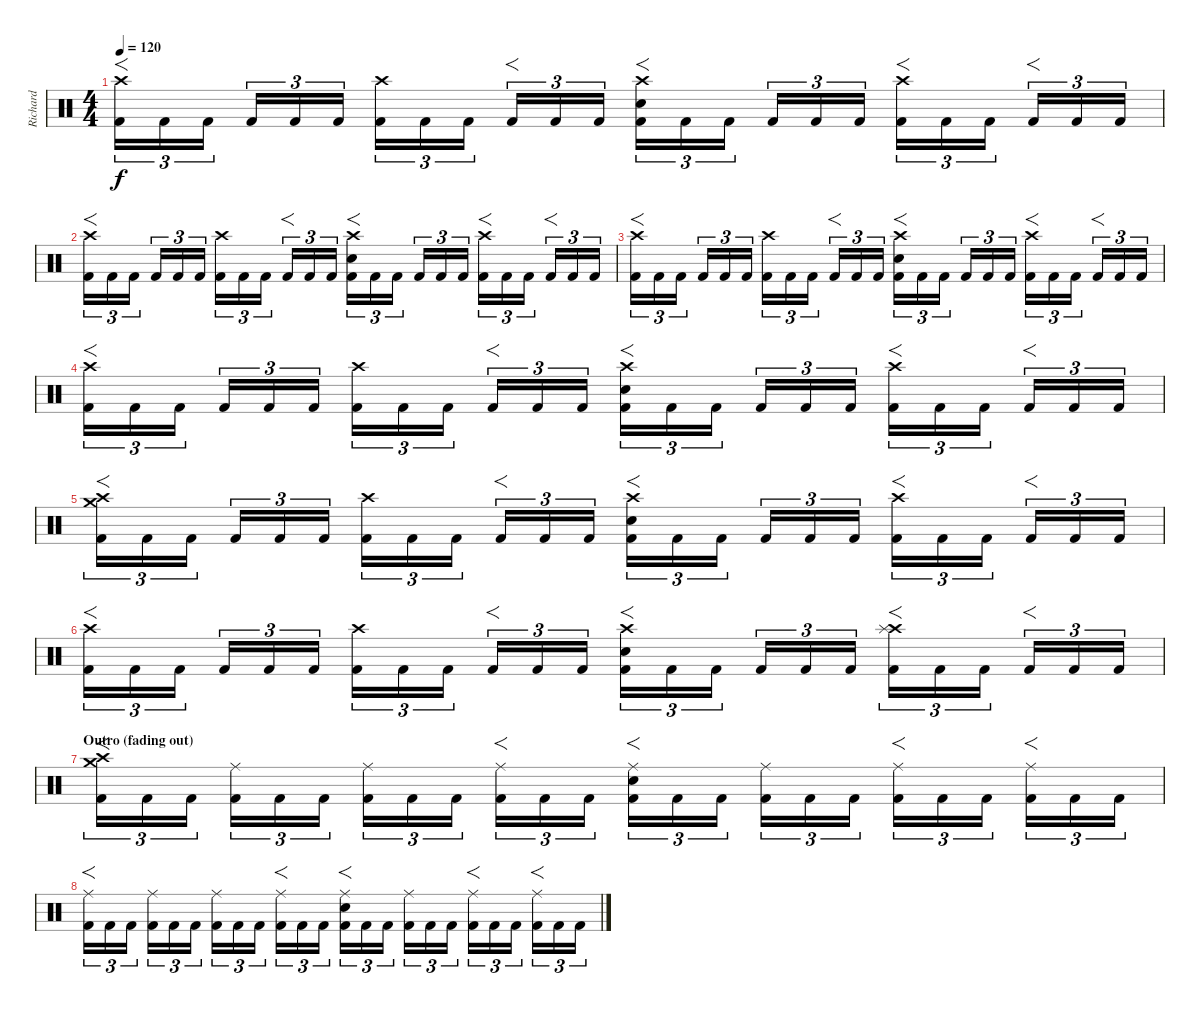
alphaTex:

\track ("Richard " "Richard ") {instrument percussion}
\staff {score}
\articulation defaults
\ts (4 4)
\tempo 120
\clef neutral
\ks c
("Crash high (hit)" "Kick (hit) 2").16{f tu (3 2) dy f} "Kick (hit) 2".16{tu (3 2)} "Kick (hit) 2".16{tu (3 2)} "Kick (hit) 2".16{tu (3 2)} "Kick (hit) 2".16{tu (3 2)} "Kick (hit) 2".16{tu (3 2)} ("Crash high (hit)" "Kick (hit) 2").16{tu (3 2)} "Kick (hit) 2".16{tu (3 2)} "Kick (hit) 2".16{tu (3 2)} "Kick (hit) 2".16{f tu (3 2)} "Kick (hit) 2".16{tu (3 2)} "Kick (hit) 2".16{tu (3 2)} ("Crash high (hit)" "Snare (hit) 2" "Kick (hit) 2").16{f tu (3 2)} "Kick (hit) 2".16{tu (3 2)} "Kick (hit) 2".16{tu (3 2)} "Kick (hit) 2".16{tu (3 2)} "Kick (hit) 2".16{tu (3 2)} "Kick (hit) 2".16{tu (3 2)} ("Crash high (hit)" "Kick (hit) 2").16{f tu (3 2)} "Kick (hit) 2".16{tu (3 2)} "Kick (hit) 2".16{tu (3 2)} "Kick (hit) 2".16{f tu (3 2)} "Kick (hit) 2".16{tu (3 2)} "Kick (hit) 2".16{tu (3 2)} |
("Crash high (hit)" "Kick (hit) 2").16{f tu (3 2)} "Kick (hit) 2".16{tu (3 2)} "Kick (hit) 2".16{tu (3 2)} "Kick (hit) 2".16{tu (3 2)} "Kick (hit) 2".16{tu (3 2)} "Kick (hit) 2".16{tu (3 2)} ("Crash high (hit)" "Kick (hit) 2").16{tu (3 2)} "Kick (hit) 2".16{tu (3 2)} "Kick (hit) 2".16{tu (3 2)} "Kick (hit) 2".16{f tu (3 2)} "Kick (hit) 2".16{tu (3 2)} "Kick (hit) 2".16{tu (3 2)} ("Crash high (hit)" "Snare (hit) 2" "Kick (hit) 2").16{f tu (3 2)} "Kick (hit) 2".16{tu (3 2)} "Kick (hit) 2".16{tu (3 2)} "Kick (hit) 2".16{tu (3 2)} "Kick (hit) 2".16{tu (3 2)} "Kick (hit) 2".16{tu (3 2)} ("Crash high (hit)" "Kick (hit) 2").16{f tu (3 2)} "Kick (hit) 2".16{tu (3 2)} "Kick (hit) 2".16{tu (3 2)} "Kick (hit) 2".16{f tu (3 2)} "Kick (hit) 2".16{tu (3 2)} "Kick (hit) 2".16{tu (3 2)} |
("Crash high (hit)" "Kick (hit) 2").16{f tu (3 2)} "Kick (hit) 2".16{tu (3 2)} "Kick (hit) 2".16{tu (3 2)} "Kick (hit) 2".16{tu (3 2)} "Kick (hit) 2".16{tu (3 2)} "Kick (hit) 2".16{tu (3 2)} ("Crash high (hit)" "Kick (hit) 2").16{tu (3 2)} "Kick (hit) 2".16{tu (3 2)} "Kick (hit) 2".16{tu (3 2)} "Kick (hit) 2".16{f tu (3 2)} "Kick (hit) 2".16{tu (3 2)} "Kick (hit) 2".16{tu (3 2)} ("Crash high (hit)" "Snare (hit) 2" "Kick (hit) 2").16{f tu (3 2)} "Kick (hit) 2".16{tu (3 2)} "Kick (hit) 2".16{tu (3 2)} "Kick (hit) 2".16{tu (3 2)} "Kick (hit) 2".16{tu (3 2)} "Kick (hit) 2".16{tu (3 2)} ("Crash high (hit)" "Kick (hit) 2").16{f tu (3 2)} "Kick (hit) 2".16{tu (3 2)} "Kick (hit) 2".16{tu (3 2)} "Kick (hit) 2".16{f tu (3 2)} "Kick (hit) 2".16{tu (3 2)} "Kick (hit) 2".16{tu (3 2)} |
("Crash high (hit)" "Kick (hit) 2").16{f tu (3 2)} "Kick (hit) 2".16{tu (3 2)} "Kick (hit) 2".16{tu (3 2)} "Kick (hit) 2".16{tu (3 2)} "Kick (hit) 2".16{tu (3 2)} "Kick (hit) 2".16{tu (3 2)} ("Crash high (hit)" "Kick (hit) 2").16{tu (3 2)} "Kick (hit) 2".16{tu (3 2)} "Kick (hit) 2".16{tu (3 2)} "Kick (hit) 2".16{f tu (3 2)} "Kick (hit) 2".16{tu (3 2)} "Kick (hit) 2".16{tu (3 2)} ("Crash high (hit)" "Snare (hit) 2" "Kick (hit) 2").16{f tu (3 2)} "Kick (hit) 2".16{tu (3 2)} "Kick (hit) 2".16{tu (3 2)} "Kick (hit) 2".16{tu (3 2)} "Kick (hit) 2".16{tu (3 2)} "Kick (hit) 2".16{tu (3 2)} ("Crash high (hit)" "Kick (hit) 2").16{f tu (3 2)} "Kick (hit) 2".16{tu (3 2)} "Kick (hit) 2".16{tu (3 2)} "Kick (hit) 2".16{f tu (3 2)} "Kick (hit) 2".16{tu (3 2)} "Kick (hit) 2".16{tu (3 2)} |
("Crash high (hit)" "Crash medium (hit)" "Kick (hit) 2").16{f tu (3 2)} "Kick (hit) 2".16{tu (3 2)} "Kick (hit) 2".16{tu (3 2)} "Kick (hit) 2".16{tu (3 2)} "Kick (hit) 2".16{tu (3 2)} "Kick (hit) 2".16{tu (3 2)} ("Crash high (hit)" "Kick (hit) 2").16{tu (3 2)} "Kick (hit) 2".16{tu (3 2)} "Kick (hit) 2".16{tu (3 2)} "Kick (hit) 2".16{f tu (3 2)} "Kick (hit) 2".16{tu (3 2)} "Kick (hit) 2".16{tu (3 2)} ("Crash high (hit)" "Snare (hit) 2" "Kick (hit) 2").16{f tu (3 2)} "Kick (hit) 2".16{tu (3 2)} "Kick (hit) 2".16{tu (3 2)} "Kick (hit) 2".16{tu (3 2)} "Kick (hit) 2".16{tu (3 2)} "Kick (hit) 2".16{tu (3 2)} ("Crash high (hit)" "Kick (hit) 2").16{f tu (3 2)} "Kick (hit) 2".16{tu (3 2)} "Kick (hit) 2".16{tu (3 2)} "Kick (hit) 2".16{f tu (3 2)} "Kick (hit) 2".16{tu (3 2)} "Kick (hit) 2".16{tu (3 2)} |
("Crash high (hit)" "Kick (hit) 2").16{f tu (3 2)} "Kick (hit) 2".16{tu (3 2)} "Kick (hit) 2".16{tu (3 2)} "Kick (hit) 2".16{tu (3 2)} "Kick (hit) 2".16{tu (3 2)} "Kick (hit) 2".16{tu (3 2)} ("Crash high (hit)" "Kick (hit) 2").16{tu (3 2)} "Kick (hit) 2".16{tu (3 2)} "Kick (hit) 2".16{tu (3 2)} "Kick (hit) 2".16{f tu (3 2)} "Kick (hit) 2".16{tu (3 2)} "Kick (hit) 2".16{tu (3 2)} ("Crash high (hit)" "Snare (hit) 2" "Kick (hit) 2").16{f tu (3 2)} "Kick (hit) 2".16{tu (3 2)} "Kick (hit) 2".16{tu (3 2)} "Kick (hit) 2".16{tu (3 2)} "Kick (hit) 2".16{tu (3 2)} "Kick (hit) 2".16{tu (3 2)} ("Crash high (hit)" "Splash (hit)" "Kick (hit) 2").16{f tu (3 2)} "Kick (hit) 2".16{tu (3 2)} "Kick (hit) 2".16{tu (3 2)} "Kick (hit) 2".16{f tu (3 2)} "Kick (hit) 2".16{tu (3 2)} "Kick (hit) 2".16{tu (3 2)} |
\section ("" "Outro (fading out)")
("Crash high (hit)" "Crash medium (hit)" "Kick (hit) 2").16{f tu (3 2)} "Kick (hit) 2".16{tu (3 2)} "Kick (hit) 2".16{tu (3 2)} ("Ride (middle)" "Kick (hit) 2").16{tu (3 2)} "Kick (hit) 2".16{tu (3 2)} "Kick (hit) 2".16{tu (3 2)} ("Ride (middle)" "Kick (hit) 2").16{tu (3 2)} "Kick (hit) 2".16{tu (3 2)} "Kick (hit) 2".16{tu (3 2)} ("Ride (middle)" "Kick (hit) 2").16{f tu (3 2)} "Kick (hit) 2".16{tu (3 2)} "Kick (hit) 2".16{tu (3 2)} ("Ride (middle)" "Snare (hit) 2" "Kick (hit) 2").16{f tu (3 2)} "Kick (hit) 2".16{tu (3 2)} "Kick (hit) 2".16{tu (3 2)} ("Ride (middle)" "Kick (hit) 2").16{tu (3 2)} "Kick (hit) 2".16{tu (3 2)} "Kick (hit) 2".16{tu (3 2)} ("Ride (middle)" "Kick (hit) 2").16{f tu (3 2)} "Kick (hit) 2".16{tu (3 2)} "Kick (hit) 2".16{tu (3 2)} ("Ride (middle)" "Kick (hit) 2").16{f tu (3 2)} "Kick (hit) 2".16{tu (3 2)} "Kick (hit) 2".16{tu (3 2)} |
("Ride (middle)" "Kick (hit) 2").16{f tu (3 2)} "Kick (hit) 2".16{tu (3 2)} "Kick (hit) 2".16{tu (3 2)} ("Ride (middle)" "Kick (hit) 2").16{tu (3 2)} "Kick (hit) 2".16{tu (3 2)} "Kick (hit) 2".16{tu (3 2)} ("Ride (middle)" "Kick (hit) 2").16{tu (3 2)} "Kick (hit) 2".16{tu (3 2)} "Kick (hit) 2".16{tu (3 2)} ("Ride (middle)" "Kick (hit) 2").16{f tu (3 2)} "Kick (hit) 2".16{tu (3 2)} "Kick (hit) 2".16{tu (3 2)} ("Ride (middle)" "Snare (hit) 2" "Kick (hit) 2").16{f tu (3 2)} "Kick (hit) 2".16{tu (3 2)} "Kick (hit) 2".16{tu (3 2)} ("Ride (middle)" "Kick (hit) 2").16{tu (3 2)} "Kick (hit) 2".16{tu (3 2)} "Kick (hit) 2".16{tu (3 2)} ("Ride (middle)" "Kick (hit) 2").16{f tu (3 2)} "Kick (hit) 2".16{tu (3 2)} "Kick (hit) 2".16{tu (3 2)} ("Ride (middle)" "Kick (hit) 2").16{f tu (3 2)} "Kick (hit) 2".16{tu (3 2)} "Kick (hit) 2".16{tu (3 2)}
